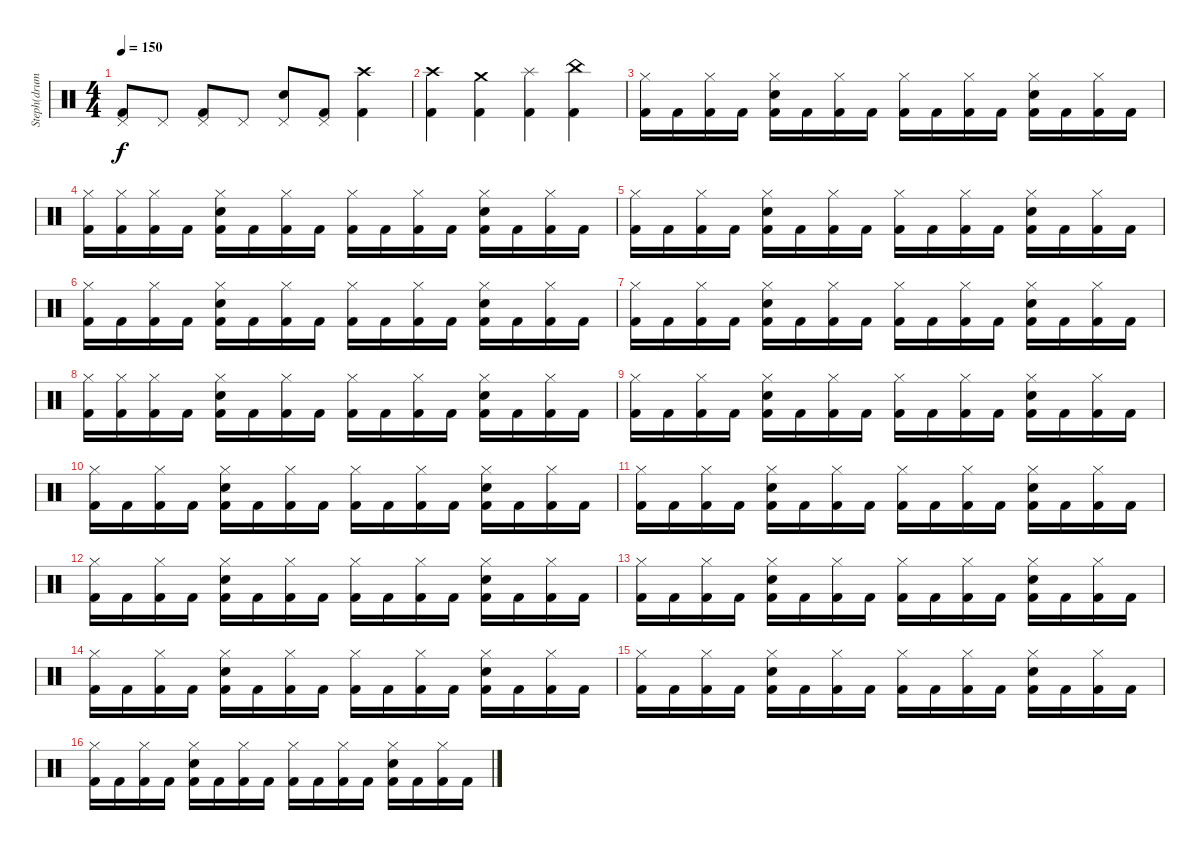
\track ("Steph(drums)" "Steph(drum") {instrument percussion}
\staff {score}
\articulation defaults
\ts (4 4)
\tempo 150
\clef neutral
\ks c
("Kick (hit) 2" "Pedal Hi-Hat (hit)").8{dy f} "Pedal Hi-Hat (hit)".8 ("Kick (hit) 2" "Pedal Hi-Hat (hit)").8 "Pedal Hi-Hat (hit)".8 ("Electric Snare (hit)" "Pedal Hi-Hat (hit)").8 ("Kick (hit) 2" "Pedal Hi-Hat (hit)").8 ("Kick (hit) 2" "Crash high (hit)").4 |
("Crash high (hit)" "Kick (hit) 2").4 ("Crash medium (hit)" "Kick (hit) 2").4 ("Splash (hit)" "Kick (hit) 2").4 ("China (hit)" "Kick (hit) 2").4 |
("Hi-Hat (closed)" "Kick (hit) 2").16 "Kick (hit) 2".16 ("Hi-Hat (closed)" "Kick (hit) 2").16 "Kick (hit) 2".16 ("Hi-Hat (closed)" "Electric Snare (hit)" "Kick (hit) 2").16 "Kick (hit) 2".16 ("Hi-Hat (closed)" "Kick (hit) 2").16 "Kick (hit) 2".16 ("Hi-Hat (closed)" "Kick (hit) 2").16 "Kick (hit) 2".16 ("Hi-Hat (closed)" "Kick (hit) 2").16 "Kick (hit) 2".16 ("Hi-Hat (closed)" "Electric Snare (hit)" "Kick (hit) 2").16 "Kick (hit) 2".16 ("Hi-Hat (closed)" "Kick (hit) 2").16 "Kick (hit) 2".16 |
("Hi-Hat (closed)" "Kick (hit) 2").16 ("Hi-Hat (closed)" "Kick (hit) 2").16 ("Hi-Hat (closed)" "Kick (hit) 2").16 "Kick (hit) 2".16 ("Hi-Hat (closed)" "Electric Snare (hit)" "Kick (hit) 2").16 "Kick (hit) 2".16 ("Hi-Hat (closed)" "Kick (hit) 2").16 "Kick (hit) 2".16 ("Hi-Hat (closed)" "Kick (hit) 2").16 "Kick (hit) 2".16 ("Hi-Hat (closed)" "Kick (hit) 2").16 "Kick (hit) 2".16 ("Hi-Hat (closed)" "Electric Snare (hit)" "Kick (hit) 2").16 "Kick (hit) 2".16 ("Hi-Hat (closed)" "Kick (hit) 2").16 "Kick (hit) 2".16 |
("Hi-Hat (closed)" "Kick (hit) 2").16 "Kick (hit) 2".16 ("Hi-Hat (closed)" "Kick (hit) 2").16 "Kick (hit) 2".16 ("Hi-Hat (closed)" "Electric Snare (hit)" "Kick (hit) 2").16 "Kick (hit) 2".16 ("Hi-Hat (closed)" "Kick (hit) 2").16 "Kick (hit) 2".16 ("Hi-Hat (closed)" "Kick (hit) 2").16 "Kick (hit) 2".16 ("Hi-Hat (closed)" "Kick (hit) 2").16 "Kick (hit) 2".16 ("Hi-Hat (closed)" "Electric Snare (hit)" "Kick (hit) 2").16 "Kick (hit) 2".16 ("Hi-Hat (closed)" "Kick (hit) 2").16 "Kick (hit) 2".16 |
("Hi-Hat (closed)" "Kick (hit) 2").16 "Kick (hit) 2".16 ("Hi-Hat (closed)" "Kick (hit) 2").16 "Kick (hit) 2".16 ("Hi-Hat (closed)" "Electric Snare (hit)" "Kick (hit) 2").16 "Kick (hit) 2".16 ("Hi-Hat (closed)" "Kick (hit) 2").16 "Kick (hit) 2".16 ("Hi-Hat (closed)" "Kick (hit) 2").16 "Kick (hit) 2".16 ("Hi-Hat (closed)" "Kick (hit) 2").16 "Kick (hit) 2".16 ("Hi-Hat (closed)" "Electric Snare (hit)" "Kick (hit) 2").16 "Kick (hit) 2".16 ("Hi-Hat (closed)" "Kick (hit) 2").16 "Kick (hit) 2".16 |
("Hi-Hat (closed)" "Kick (hit) 2").16 "Kick (hit) 2".16 ("Hi-Hat (closed)" "Kick (hit) 2").16 "Kick (hit) 2".16 ("Hi-Hat (closed)" "Electric Snare (hit)" "Kick (hit) 2").16 "Kick (hit) 2".16 ("Hi-Hat (closed)" "Kick (hit) 2").16 "Kick (hit) 2".16 ("Hi-Hat (closed)" "Kick (hit) 2").16 "Kick (hit) 2".16 ("Hi-Hat (closed)" "Kick (hit) 2").16 "Kick (hit) 2".16 ("Hi-Hat (closed)" "Electric Snare (hit)" "Kick (hit) 2").16 "Kick (hit) 2".16 ("Hi-Hat (closed)" "Kick (hit) 2").16 "Kick (hit) 2".16 |
("Hi-Hat (closed)" "Kick (hit) 2").16 ("Hi-Hat (closed)" "Kick (hit) 2").16 ("Hi-Hat (closed)" "Kick (hit) 2").16 "Kick (hit) 2".16 ("Hi-Hat (closed)" "Electric Snare (hit)" "Kick (hit) 2").16 "Kick (hit) 2".16 ("Hi-Hat (closed)" "Kick (hit) 2").16 "Kick (hit) 2".16 ("Hi-Hat (closed)" "Kick (hit) 2").16 "Kick (hit) 2".16 ("Hi-Hat (closed)" "Kick (hit) 2").16 "Kick (hit) 2".16 ("Hi-Hat (closed)" "Electric Snare (hit)" "Kick (hit) 2").16 "Kick (hit) 2".16 ("Hi-Hat (closed)" "Kick (hit) 2").16 "Kick (hit) 2".16 |
("Hi-Hat (closed)" "Kick (hit) 2").16 "Kick (hit) 2".16 ("Hi-Hat (closed)" "Kick (hit) 2").16 "Kick (hit) 2".16 ("Hi-Hat (closed)" "Electric Snare (hit)" "Kick (hit) 2").16 "Kick (hit) 2".16 ("Hi-Hat (closed)" "Kick (hit) 2").16 "Kick (hit) 2".16 ("Hi-Hat (closed)" "Kick (hit) 2").16 "Kick (hit) 2".16 ("Hi-Hat (closed)" "Kick (hit) 2").16 "Kick (hit) 2".16 ("Hi-Hat (closed)" "Electric Snare (hit)" "Kick (hit) 2").16 "Kick (hit) 2".16 ("Hi-Hat (closed)" "Kick (hit) 2").16 "Kick (hit) 2".16 |
("Hi-Hat (closed)" "Kick (hit) 2").16 "Kick (hit) 2".16 ("Hi-Hat (closed)" "Kick (hit) 2").16 "Kick (hit) 2".16 ("Hi-Hat (closed)" "Electric Snare (hit)" "Kick (hit) 2").16 "Kick (hit) 2".16 ("Hi-Hat (closed)" "Kick (hit) 2").16 "Kick (hit) 2".16 ("Hi-Hat (closed)" "Kick (hit) 2").16 "Kick (hit) 2".16 ("Hi-Hat (closed)" "Kick (hit) 2").16 "Kick (hit) 2".16 ("Hi-Hat (closed)" "Electric Snare (hit)" "Kick (hit) 2").16 "Kick (hit) 2".16 ("Hi-Hat (closed)" "Kick (hit) 2").16 "Kick (hit) 2".16 |
("Hi-Hat (closed)" "Kick (hit) 2").16 "Kick (hit) 2".16 ("Hi-Hat (closed)" "Kick (hit) 2").16 "Kick (hit) 2".16 ("Hi-Hat (closed)" "Electric Snare (hit)" "Kick (hit) 2").16 "Kick (hit) 2".16 ("Hi-Hat (closed)" "Kick (hit) 2").16 "Kick (hit) 2".16 ("Hi-Hat (closed)" "Kick (hit) 2").16 "Kick (hit) 2".16 ("Hi-Hat (closed)" "Kick (hit) 2").16 "Kick (hit) 2".16 ("Hi-Hat (closed)" "Electric Snare (hit)" "Kick (hit) 2").16 "Kick (hit) 2".16 ("Hi-Hat (closed)" "Kick (hit) 2").16 "Kick (hit) 2".16 |
("Hi-Hat (closed)" "Kick (hit) 2").16 "Kick (hit) 2".16 ("Hi-Hat (closed)" "Kick (hit) 2").16 "Kick (hit) 2".16 ("Hi-Hat (closed)" "Electric Snare (hit)" "Kick (hit) 2").16 "Kick (hit) 2".16 ("Hi-Hat (closed)" "Kick (hit) 2").16 "Kick (hit) 2".16 ("Hi-Hat (closed)" "Kick (hit) 2").16 "Kick (hit) 2".16 ("Hi-Hat (closed)" "Kick (hit) 2").16 "Kick (hit) 2".16 ("Hi-Hat (closed)" "Electric Snare (hit)" "Kick (hit) 2").16 "Kick (hit) 2".16 ("Hi-Hat (closed)" "Kick (hit) 2").16 "Kick (hit) 2".16 |
("Hi-Hat (closed)" "Kick (hit) 2").16 "Kick (hit) 2".16 ("Hi-Hat (closed)" "Kick (hit) 2").16 "Kick (hit) 2".16 ("Hi-Hat (closed)" "Electric Snare (hit)" "Kick (hit) 2").16 "Kick (hit) 2".16 ("Hi-Hat (closed)" "Kick (hit) 2").16 "Kick (hit) 2".16 ("Hi-Hat (closed)" "Kick (hit) 2").16 "Kick (hit) 2".16 ("Hi-Hat (closed)" "Kick (hit) 2").16 "Kick (hit) 2".16 ("Hi-Hat (closed)" "Electric Snare (hit)" "Kick (hit) 2").16 "Kick (hit) 2".16 ("Hi-Hat (closed)" "Kick (hit) 2").16 "Kick (hit) 2".16 |
("Hi-Hat (closed)" "Kick (hit) 2").16 "Kick (hit) 2".16 ("Hi-Hat (closed)" "Kick (hit) 2").16 "Kick (hit) 2".16 ("Hi-Hat (closed)" "Electric Snare (hit)" "Kick (hit) 2").16 "Kick (hit) 2".16 ("Hi-Hat (closed)" "Kick (hit) 2").16 "Kick (hit) 2".16 ("Hi-Hat (closed)" "Kick (hit) 2").16 "Kick (hit) 2".16 ("Hi-Hat (closed)" "Kick (hit) 2").16 "Kick (hit) 2".16 ("Hi-Hat (closed)" "Electric Snare (hit)" "Kick (hit) 2").16 "Kick (hit) 2".16 ("Hi-Hat (closed)" "Kick (hit) 2").16 "Kick (hit) 2".16 |
("Hi-Hat (closed)" "Kick (hit) 2").16 "Kick (hit) 2".16 ("Hi-Hat (closed)" "Kick (hit) 2").16 "Kick (hit) 2".16 ("Hi-Hat (closed)" "Electric Snare (hit)" "Kick (hit) 2").16 "Kick (hit) 2".16 ("Hi-Hat (closed)" "Kick (hit) 2").16 "Kick (hit) 2".16 ("Hi-Hat (closed)" "Kick (hit) 2").16 "Kick (hit) 2".16 ("Hi-Hat (closed)" "Kick (hit) 2").16 "Kick (hit) 2".16 ("Hi-Hat (closed)" "Electric Snare (hit)" "Kick (hit) 2").16 "Kick (hit) 2".16 ("Hi-Hat (closed)" "Kick (hit) 2").16 "Kick (hit) 2".16 |
("Hi-Hat (closed)" "Kick (hit) 2").16 "Kick (hit) 2".16 ("Hi-Hat (closed)" "Kick (hit) 2").16 "Kick (hit) 2".16 ("Hi-Hat (closed)" "Electric Snare (hit)" "Kick (hit) 2").16 "Kick (hit) 2".16 ("Hi-Hat (closed)" "Kick (hit) 2").16 "Kick (hit) 2".16 ("Hi-Hat (closed)" "Kick (hit) 2").16 "Kick (hit) 2".16 ("Hi-Hat (closed)" "Kick (hit) 2").16 "Kick (hit) 2".16 ("Hi-Hat (closed)" "Electric Snare (hit)" "Kick (hit) 2").16 "Kick (hit) 2".16 ("Hi-Hat (closed)" "Kick (hit) 2").16 "Kick (hit) 2".16
